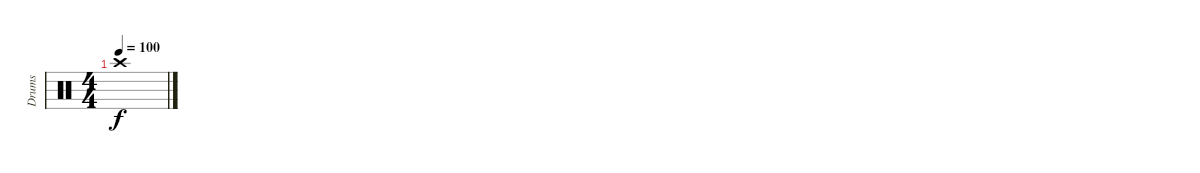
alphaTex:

\track ("Drums" "Drums") {instrument percussion}
\staff {score}
\articulation defaults
\ts (4 4)
\tempo 100
\clef neutral
\ks c "Crash high (hit)".1{dy f}
